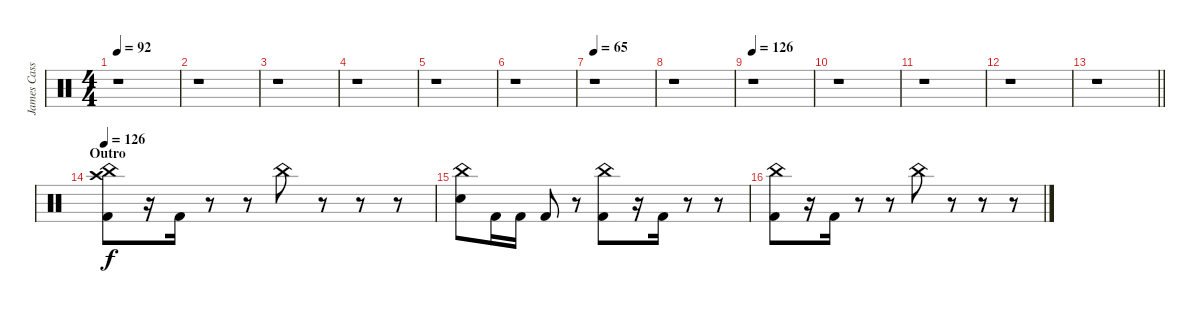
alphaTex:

\track ("James Cassells (Drums)" "James Cass") {instrument percussion}
\staff {score}
\articulation defaults
\ts (4 4)
\tempo 92
\clef neutral
\ks c
r.1{dy f} |
r.1 |
r.1 |
r.1 |
r.1 |
r.1 |
\tempo 65
r.1 |
r.1 |
\tempo 126
r.1 |
r.1 |
r.1 |
r.1 |
\barLineRight lightlight
r.1 |
\section ("" "Outro")
\tempo 126
("China (hit)" "Crash high (hit)" "Kick (hit) 2").8 r.16 "Kick (hit) 2".16 r.8 r.8 "China (hit)".8 r.8 r.8 r.8 |
("China (hit)" "Snare (hit) 2").8 "Kick (hit) 2".16 "Kick (hit) 2".16 "Kick (hit) 2".8 r.8 ("China (hit)" "Kick (hit) 2").8 r.16 "Kick (hit) 2".16 r.8 r.8 |
("China (hit)" "Kick (hit) 2").8 r.16 "Kick (hit) 2".16 r.8 r.8 "China (hit)".8 r.8 r.8 r.8
